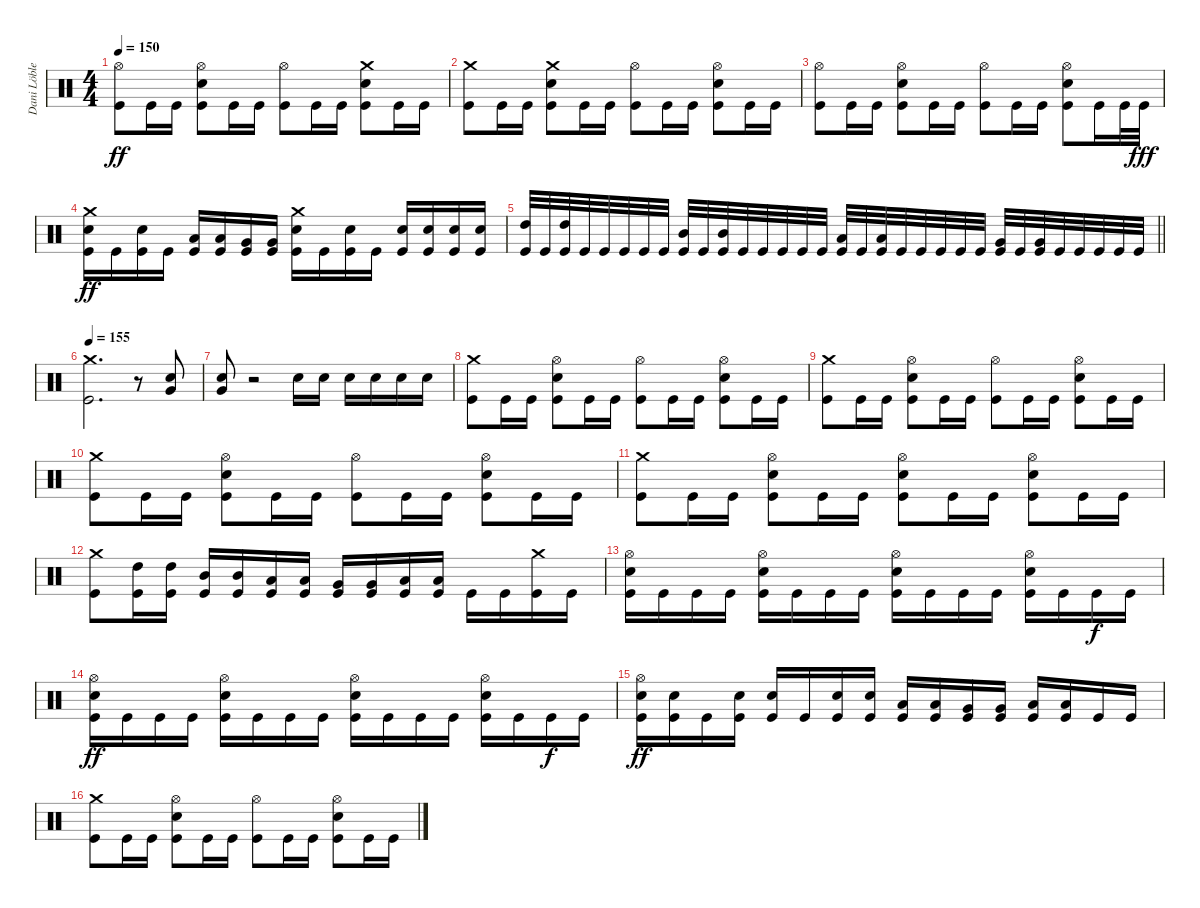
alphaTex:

\track ("Dani Löble" "Dani Löble") {instrument percussion}
\staff {score}
\articulation defaults
\ts (4 4)
\tempo 150
\clef neutral
\ks c
("Hi-Hat (open)" "Kick (hit)").8{dy ff} "Kick (hit)".16 "Kick (hit)".16 ("Hi-Hat (open)" "Electric Snare (hit)" "Kick (hit)").8 "Kick (hit)".16 "Kick (hit)".16 ("Hi-Hat (open)" "Kick (hit)").8 "Kick (hit)".16 "Kick (hit)".16 ("Crash medium (hit)" "Electric Snare (hit)" "Kick (hit)").8 "Kick (hit)".16 "Kick (hit)".16 |
("Crash medium (hit)" "Kick (hit)").8 "Kick (hit)".16 "Kick (hit)".16 ("Crash medium (hit)" "Electric Snare (hit)" "Kick (hit)").8 "Kick (hit)".16 "Kick (hit)".16 ("Hi-Hat (open)" "Kick (hit)").8 "Kick (hit)".16 "Kick (hit)".16 ("Hi-Hat (open)" "Electric Snare (hit)" "Kick (hit)").8 "Kick (hit)".16 "Kick (hit)".16 |
("Hi-Hat (open)" "Kick (hit)").8 "Kick (hit)".16 "Kick (hit)".16 ("Hi-Hat (open)" "Electric Snare (hit)" "Kick (hit)").8 "Kick (hit)".16 "Kick (hit)".16 ("Hi-Hat (open)" "Kick (hit)").8 "Kick (hit)".16 "Kick (hit)".16 ("Hi-Hat (open)" "Electric Snare (hit)" "Kick (hit)").8 "Kick (hit)".16 "Kick (hit)".32 "Kick (hit)".32{dy fff} |
("Crash medium (hit)" "Electric Snare (hit)" "Kick (hit)").16{dy ff} "Kick (hit)".16 ("Electric Snare (hit)" "Kick (hit)").16 "Kick (hit)".16 ("Low Tom (hit)" "Kick (hit)").16 ("Low Tom (hit)" "Kick (hit)").16 ("Very Low Tom (hit)" "Kick (hit)").16 ("Very Low Tom (hit)" "Kick (hit)").16 ("Crash medium (hit)" "Electric Snare (hit)" "Kick (hit)").16 "Kick (hit)".16 ("Electric Snare (hit)" "Kick (hit)").16 "Kick (hit)".16 ("Electric Snare (hit)" "Kick (hit)").16 ("Electric Snare (hit)" "Kick (hit)").16 ("Electric Snare (hit)" "Kick (hit)").16 ("Electric Snare (hit)" "Kick (hit)").16 |
\barLineRight lightlight
("High Tom (hit)" "Kick (hit)").32 "Kick (hit)".32 ("High Tom (hit)" "Kick (hit)").32 "Kick (hit)".32 "Kick (hit)".32 "Kick (hit)".32 "Kick (hit)".32 "Kick (hit)".32 ("Mid Tom (hit)" "Kick (hit)").32 "Kick (hit)".32 ("Mid Tom (hit)" "Kick (hit)").32 "Kick (hit)".32 "Kick (hit)".32 "Kick (hit)".32 "Kick (hit)".32 "Kick (hit)".32 ("Low Tom (hit)" "Kick (hit)").32 "Kick (hit)".32 ("Low Tom (hit)" "Kick (hit)").32 "Kick (hit)".32 "Kick (hit)".32 "Kick (hit)".32 "Kick (hit)".32 "Kick (hit)".32 ("Very Low Tom (hit)" "Kick (hit)").32 "Kick (hit)".32 ("Very Low Tom (hit)" "Kick (hit)").32 "Kick (hit)".32 "Kick (hit)".32 "Kick (hit)".32 "Kick (hit)".32 "Kick (hit)".32 |
\section ("" "")
\tempo 155
("Crash medium (hit)" "Kick (hit)").2{d} r.8 ("Electric Snare (hit)" "Very Low Tom (hit)").8 |
("Electric Snare (hit)" "Very Low Tom (hit)").8 r.2 "Electric Snare (hit)".16 "Electric Snare (hit)".16 "Electric Snare (hit)".16 "Electric Snare (hit)".16 "Electric Snare (hit)".16 "Electric Snare (hit)".16 |
("Crash medium (hit)" "Kick (hit)").8 "Kick (hit)".16 "Kick (hit)".16 ("Hi-Hat (open)" "Electric Snare (hit)" "Kick (hit)").8 "Kick (hit)".16 "Kick (hit)".16 ("Hi-Hat (open)" "Kick (hit)").8 "Kick (hit)".16 "Kick (hit)".16 ("Hi-Hat (open)" "Electric Snare (hit)" "Kick (hit)").8 "Kick (hit)".16 "Kick (hit)".16 |
("Crash medium (hit)" "Kick (hit)").8 "Kick (hit)".16 "Kick (hit)".16 ("Hi-Hat (open)" "Electric Snare (hit)" "Kick (hit)").8 "Kick (hit)".16 "Kick (hit)".16 ("Hi-Hat (open)" "Kick (hit)").8 "Kick (hit)".16 "Kick (hit)".16 ("Hi-Hat (open)" "Electric Snare (hit)" "Kick (hit)").8 "Kick (hit)".16 "Kick (hit)".16 |
("Crash medium (hit)" "Kick (hit)").8 "Kick (hit)".16 "Kick (hit)".16 ("Hi-Hat (open)" "Electric Snare (hit)" "Kick (hit)").8 "Kick (hit)".16 "Kick (hit)".16 ("Hi-Hat (open)" "Kick (hit)").8 "Kick (hit)".16 "Kick (hit)".16 ("Hi-Hat (open)" "Electric Snare (hit)" "Kick (hit)").8 "Kick (hit)".16 "Kick (hit)".16 |
("Crash medium (hit)" "Kick (hit)").8 "Kick (hit)".16 "Kick (hit)".16 ("Hi-Hat (open)" "Electric Snare (hit)" "Kick (hit)").8 "Kick (hit)".16 "Kick (hit)".16 ("Hi-Hat (open)" "Electric Snare (hit)" "Kick (hit)").8 "Kick (hit)".16 "Kick (hit)".16 ("Hi-Hat (open)" "Electric Snare (hit)" "Kick (hit)").8 "Kick (hit)".16 "Kick (hit)".16 |
("Crash medium (hit)" "Kick (hit)").8 ("High Tom (hit)" "Kick (hit)").16 ("High Tom (hit)" "Kick (hit)").16 ("Mid Tom (hit)" "Kick (hit)").16 ("Mid Tom (hit)" "Kick (hit)").16 ("Low Tom (hit)" "Kick (hit)").16 ("Low Tom (hit)" "Kick (hit)").16 ("Very Low Tom (hit)" "Kick (hit)").16 ("Very Low Tom (hit)" "Kick (hit)").16 ("Low Floor Tom (hit)" "Kick (hit)").16 ("Low Floor Tom (hit)" "Kick (hit)").16 "Kick (hit)".16 "Kick (hit)".16 ("Crash medium (hit)" "Kick (hit)").16 "Kick (hit)".16 |
("Hi-Hat (open)" "Electric Snare (hit)" "Kick (hit)").16 "Kick (hit)".16 "Kick (hit)".16 "Kick (hit)".16 ("Hi-Hat (open)" "Electric Snare (hit)" "Kick (hit)").16 "Kick (hit)".16 "Kick (hit)".16 "Kick (hit)".16 ("Hi-Hat (open)" "Electric Snare (hit)" "Kick (hit)").16 "Kick (hit)".16 "Kick (hit)".16 "Kick (hit)".16 ("Hi-Hat (open)" "Electric Snare (hit)" "Kick (hit)").16 "Kick (hit)".16 "Kick (hit)".16{dy f} "Kick (hit)".16 |
("Hi-Hat (open)" "Electric Snare (hit)" "Kick (hit)").16{dy ff} "Kick (hit)".16 "Kick (hit)".16 "Kick (hit)".16 ("Hi-Hat (open)" "Electric Snare (hit)" "Kick (hit)").16 "Kick (hit)".16 "Kick (hit)".16 "Kick (hit)".16 ("Hi-Hat (open)" "Electric Snare (hit)" "Kick (hit)").16 "Kick (hit)".16 "Kick (hit)".16 "Kick (hit)".16 ("Hi-Hat (open)" "Electric Snare (hit)" "Kick (hit)").16 "Kick (hit)".16 "Kick (hit)".16{dy f} "Kick (hit)".16 |
("Hi-Hat (open)" "Electric Snare (hit)" "Kick (hit)").16{dy ff} ("Electric Snare (hit)" "Kick (hit)").16 "Kick (hit)".16 ("Electric Snare (hit)" "Kick (hit)").16 ("Electric Snare (hit)" "Kick (hit)").16 "Kick (hit)".16 ("Electric Snare (hit)" "Kick (hit)").16 ("Electric Snare (hit)" "Kick (hit)").16 ("Low Tom (hit)" "Kick (hit)").16 ("Low Tom (hit)" "Kick (hit)").16 ("Very Low Tom (hit)" "Kick (hit)").16 ("Very Low Tom (hit)" "Kick (hit)").16 ("Low Floor Tom (hit)" "Kick (hit)").16 ("Low Floor Tom (hit)" "Kick (hit)").16 "Kick (hit)".16 "Kick (hit)".16 |
("Crash medium (hit)" "Kick (hit)").8 "Kick (hit)".16 "Kick (hit)".16 ("Hi-Hat (open)" "Electric Snare (hit)" "Kick (hit)").8 "Kick (hit)".16 "Kick (hit)".16 ("Hi-Hat (open)" "Kick (hit)").8 "Kick (hit)".16 "Kick (hit)".16 ("Hi-Hat (open)" "Electric Snare (hit)" "Kick (hit)").8 "Kick (hit)".16 "Kick (hit)".16
